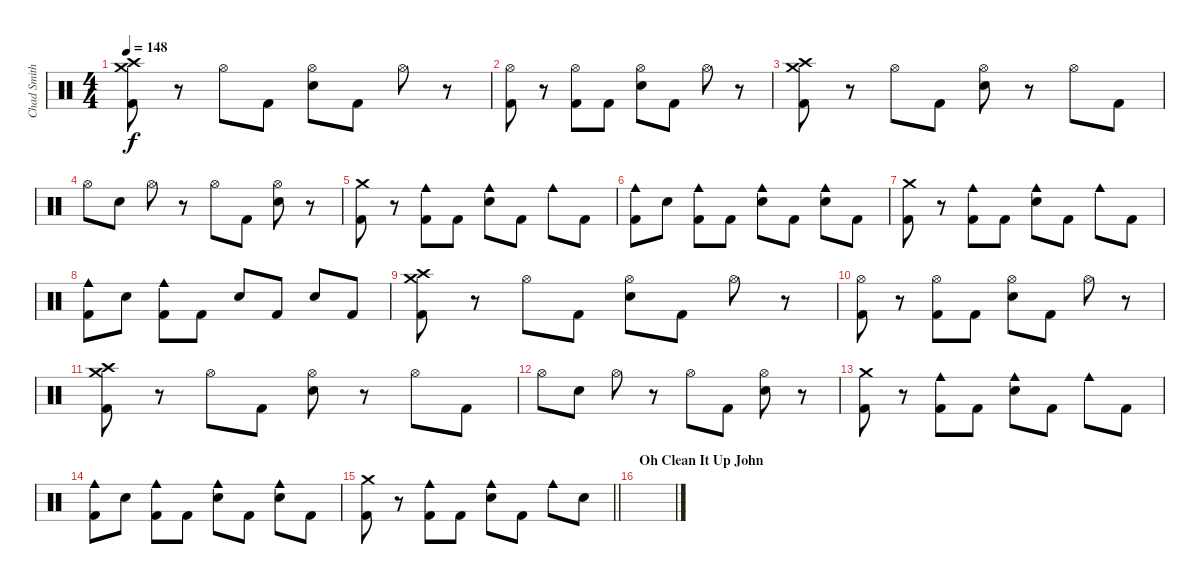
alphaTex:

\track ("Chad Smith" "Chad Smith") {instrument percussion}
\staff {score}
\articulation defaults
\ts (4 4)
\tempo 148
\clef neutral
\ks c
("Crash medium (hit)" "Crash high (hit)" "Kick (hit) 2").8{dy f} r.8 "Hi-Hat (open)".8 "Kick (hit) 2".8 ("Hi-Hat (open)" "Snare (hit) 2").8 "Kick (hit) 2".8 "Hi-Hat (open)".8 r.8 |
("Hi-Hat (open)" "Kick (hit) 2").8 r.8 ("Hi-Hat (open)" "Kick (hit) 2").8 "Kick (hit) 2".8 ("Hi-Hat (open)" "Snare (hit) 2").8 "Kick (hit) 2".8 "Hi-Hat (open)".8 r.8 |
("Crash medium (hit)" "Crash high (hit)" "Kick (hit) 2").8 r.8 "Hi-Hat (open)".8 "Kick (hit) 2".8 ("Hi-Hat (open)" "Snare (hit) 2").8 r.8 "Hi-Hat (open)".8 "Kick (hit) 2".8 |
"Hi-Hat (open)".8 "Snare (hit) 2".8 "Hi-Hat (open)".8 r.8 "Hi-Hat (open)".8 "Kick (hit) 2".8 ("Hi-Hat (open)" "Snare (hit) 2").8 r.8 |
("Crash medium (hit)" "Kick (hit) 2").8 r.8 ("Cowbell medium (hit)" "Kick (hit) 2").8 "Kick (hit) 2".8 ("Cowbell medium (hit)" "Snare (hit) 2").8 "Kick (hit) 2".8 "Cowbell medium (hit)".8 "Kick (hit) 2".8 |
("Cowbell medium (hit)" "Kick (hit) 2").8 "Snare (hit) 2".8 ("Cowbell medium (hit)" "Kick (hit) 2").8 "Kick (hit) 2".8 ("Cowbell medium (hit)" "Snare (hit) 2").8 "Kick (hit) 2".8 ("Cowbell medium (hit)" "Snare (hit) 2").8 "Kick (hit) 2".8 |
("Crash medium (hit)" "Kick (hit) 2").8 r.8 ("Cowbell medium (hit)" "Kick (hit) 2").8 "Kick (hit) 2".8 ("Cowbell medium (hit)" "Snare (hit) 2").8 "Kick (hit) 2".8 "Cowbell medium (hit)".8 "Kick (hit) 2".8 |
("Cowbell medium (hit)" "Kick (hit) 2").8 "Snare (hit) 2".8 ("Cowbell medium (hit)" "Kick (hit) 2").8 "Kick (hit) 2".8 "Snare (hit) 2".8 "Kick (hit) 2".8 "Snare (hit) 2".8 "Kick (hit) 2".8 |
("Crash medium (hit)" "Crash high (hit)" "Kick (hit) 2").8 r.8 "Hi-Hat (open)".8 "Kick (hit) 2".8 ("Hi-Hat (open)" "Snare (hit) 2").8 "Kick (hit) 2".8 "Hi-Hat (open)".8 r.8 |
("Hi-Hat (open)" "Kick (hit) 2").8 r.8 ("Hi-Hat (open)" "Kick (hit) 2").8 "Kick (hit) 2".8 ("Hi-Hat (open)" "Snare (hit) 2").8 "Kick (hit) 2".8 "Hi-Hat (open)".8 r.8 |
("Crash medium (hit)" "Crash high (hit)" "Kick (hit) 2").8 r.8 "Hi-Hat (open)".8 "Kick (hit) 2".8 ("Hi-Hat (open)" "Snare (hit) 2").8 r.8 "Hi-Hat (open)".8 "Kick (hit) 2".8 |
"Hi-Hat (open)".8 "Snare (hit) 2".8 "Hi-Hat (open)".8 r.8 "Hi-Hat (open)".8 "Kick (hit) 2".8 ("Hi-Hat (open)" "Snare (hit) 2").8 r.8 |
("Crash medium (hit)" "Kick (hit) 2").8 r.8 ("Cowbell medium (hit)" "Kick (hit) 2").8 "Kick (hit) 2".8 ("Cowbell medium (hit)" "Snare (hit) 2").8 "Kick (hit) 2".8 "Cowbell medium (hit)".8 "Kick (hit) 2".8 |
("Cowbell medium (hit)" "Kick (hit) 2").8 "Snare (hit) 2".8 ("Cowbell medium (hit)" "Kick (hit) 2").8 "Kick (hit) 2".8 ("Cowbell medium (hit)" "Snare (hit) 2").8 "Kick (hit) 2".8 ("Cowbell medium (hit)" "Snare (hit) 2").8 "Kick (hit) 2".8 |
\barLineRight lightlight
("Crash medium (hit)" "Kick (hit) 2").8 r.8 ("Cowbell medium (hit)" "Kick (hit) 2").8 "Kick (hit) 2".8 ("Cowbell medium (hit)" "Snare (hit) 2").8 "Kick (hit) 2".8 "Cowbell medium (hit)".8 "Snare (hit) 2".8 |
\section ("" "Oh Clean It Up John")
